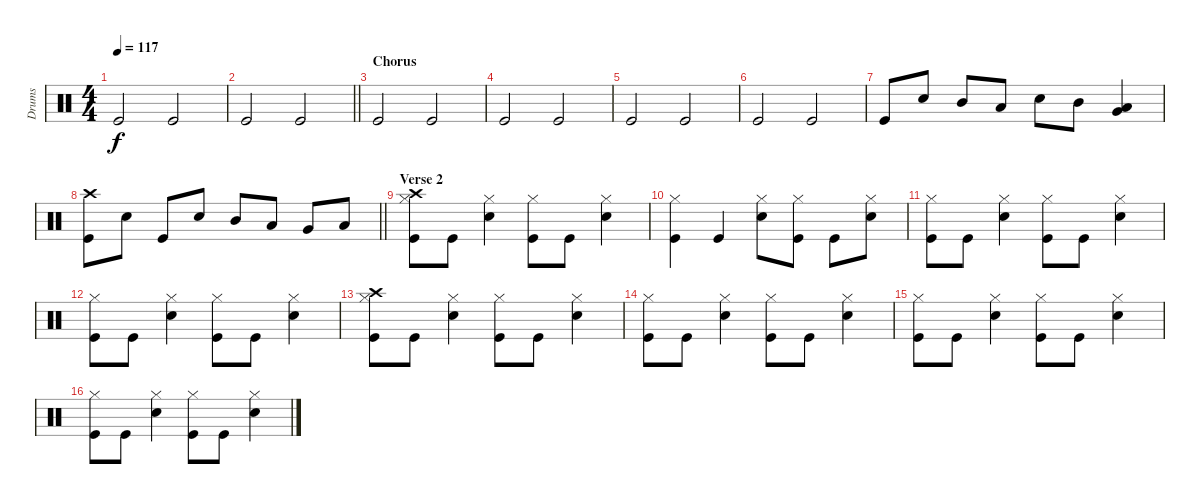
\track ("Drums" "Drums") {instrument percussion}
\staff {score}
\articulation defaults
\ts (4 4)
\tempo 117
\clef neutral
\ks c "Kick (hit)".2{dy f} "Kick (hit)".2
|
\barLineRight lightlight "Kick (hit)".2 "Kick (hit)".2
|
\section ("" "Chorus")
"Kick (hit)".2 "Kick (hit)".2 |
"Kick (hit)".2 "Kick (hit)".2 |
"Kick (hit)".2 "Kick (hit)".2 |
"Kick (hit)".2 "Kick (hit)".2 |
"Kick (hit)".8 "Electric Snare (hit)".8 "Mid Tom (hit)".8 "Low Tom (hit)".8 "Electric Snare (hit)".8 "Mid Tom (hit)".8 ("Low Tom (hit)" "Very Low Tom (hit)").4 |
\barLineRight lightlight
("Crash high (hit)" "Kick (hit)").8 "Electric Snare (hit)".8 "Kick (hit)".8 "Electric Snare (hit)".8 "Mid Tom (hit)".8 "Low Tom (hit)".8 "Very Low Tom (hit)".8 "Low Floor Tom (hit)".8 |
\section ("" "Verse 2")
("Crash high (hit)" "Kick (hit)" "Hi-Hat (closed)").8 "Kick (hit)".8 ("Electric Snare (hit)" "Hi-Hat (closed)").4 ("Kick (hit)" "Hi-Hat (closed)").8 "Kick (hit)".8 ("Electric Snare (hit)" "Hi-Hat (closed)").4 |
("Kick (hit)" "Hi-Hat (closed)").4 "Kick (hit)".4 ("Electric Snare (hit)" "Hi-Hat (closed)").8 ("Kick (hit)" "Hi-Hat (closed)").8 "Kick (hit)".8 ("Electric Snare (hit)" "Hi-Hat (closed)").8 |
("Kick (hit)" "Hi-Hat (closed)").8 "Kick (hit)".8 ("Electric Snare (hit)" "Hi-Hat (closed)").4 ("Kick (hit)" "Hi-Hat (closed)").8 "Kick (hit)".8 ("Electric Snare (hit)" "Hi-Hat (closed)").4 |
("Kick (hit)" "Hi-Hat (closed)").8 "Kick (hit)".8 ("Electric Snare (hit)" "Hi-Hat (closed)").4 ("Kick (hit)" "Hi-Hat (closed)").8 "Kick (hit)".8 ("Electric Snare (hit)" "Hi-Hat (closed)").4 |
("Crash high (hit)" "Kick (hit)" "Hi-Hat (closed)").8 "Kick (hit)".8 ("Electric Snare (hit)" "Hi-Hat (closed)").4 ("Kick (hit)" "Hi-Hat (closed)").8 "Kick (hit)".8 ("Electric Snare (hit)" "Hi-Hat (closed)").4 |
("Kick (hit)" "Hi-Hat (closed)").8 "Kick (hit)".8 ("Electric Snare (hit)" "Hi-Hat (closed)").4 ("Kick (hit)" "Hi-Hat (closed)").8 "Kick (hit)".8 ("Electric Snare (hit)" "Hi-Hat (closed)").4 |
("Kick (hit)" "Hi-Hat (closed)").8 "Kick (hit)".8 ("Electric Snare (hit)" "Hi-Hat (closed)").4 ("Kick (hit)" "Hi-Hat (closed)").8 "Kick (hit)".8 ("Electric Snare (hit)" "Hi-Hat (closed)").4 |
("Kick (hit)" "Hi-Hat (closed)").8 "Kick (hit)".8 ("Electric Snare (hit)" "Hi-Hat (closed)").4 ("Kick (hit)" "Hi-Hat (closed)").8 "Kick (hit)".8 ("Electric Snare (hit)" "Hi-Hat (closed)").4
